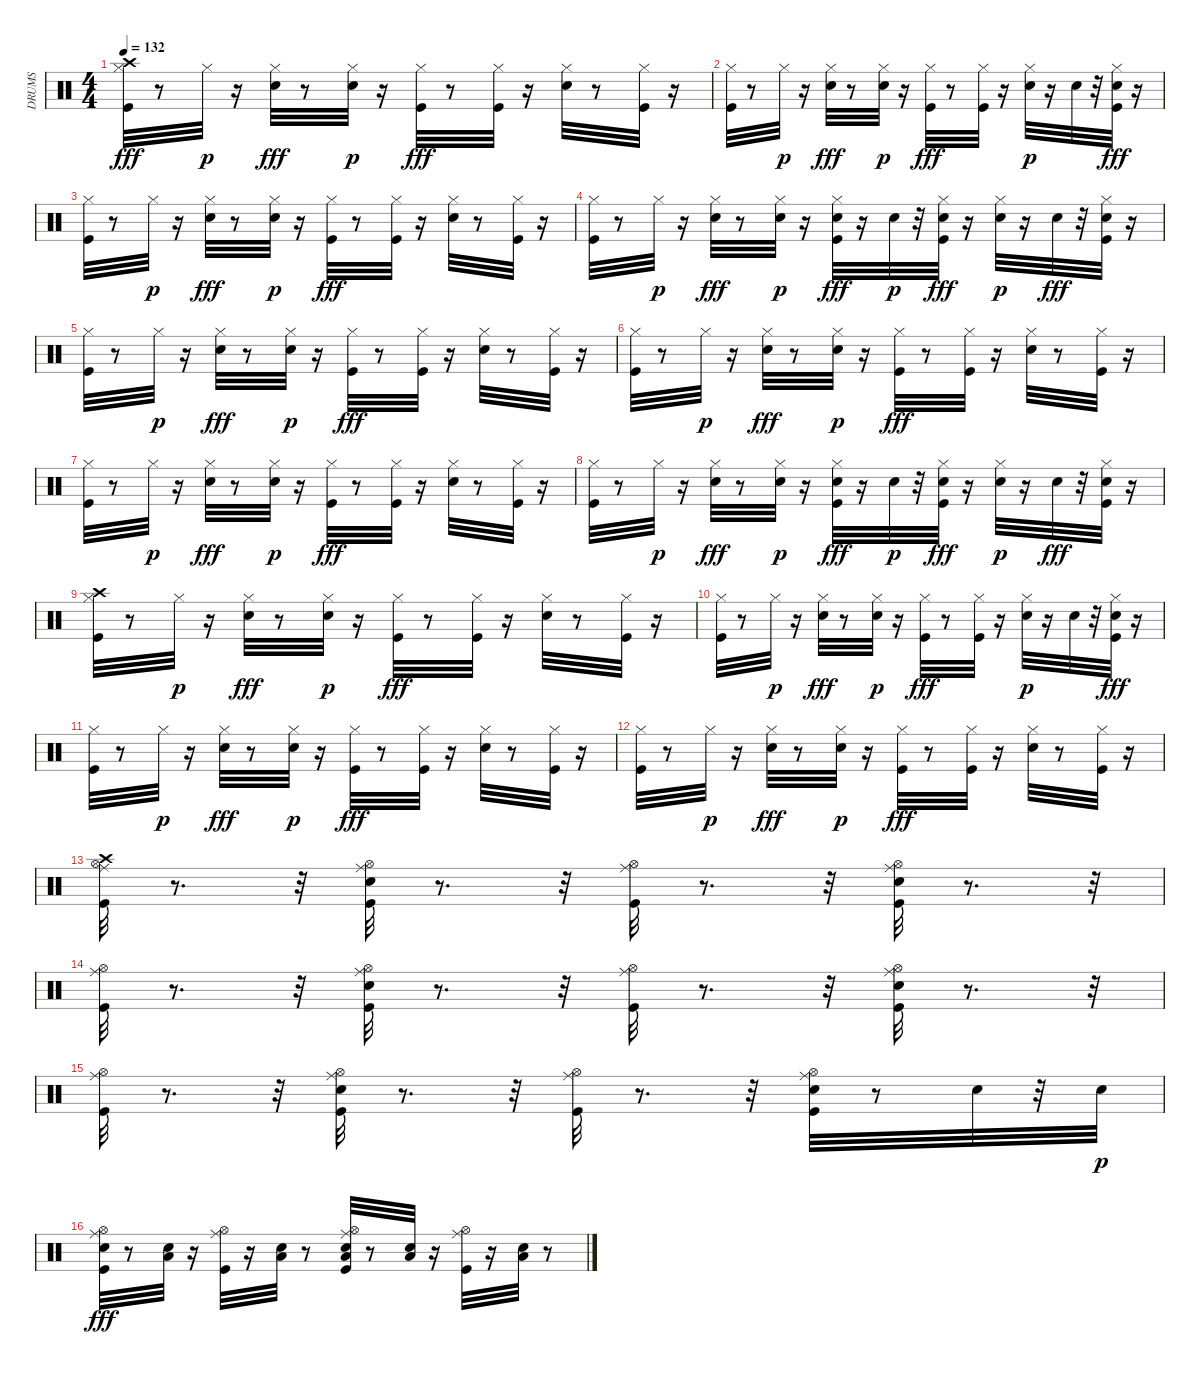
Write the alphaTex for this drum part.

\track ("DRUMS" "DRUMS") {instrument percussion}
\staff {score}
\articulation defaults
\ts (4 4)
\tempo 132
\clef neutral
\ks c
("Hi-Hat (closed)" "Kick (hit)" "Crash high (hit)").32{dy fff} r.8 "Hi-Hat (closed)".32{dy p} r.16 ("Hi-Hat (closed)" "Snare (hit) 2").32{dy fff} r.8 ("Hi-Hat (closed)" "Snare (hit) 2").32{dy p} r.16 ("Hi-Hat (closed)" "Kick (hit)").32{dy fff} r.8 ("Hi-Hat (closed)" "Kick (hit)").32 r.16 ("Hi-Hat (closed)" "Snare (hit) 2").32 r.8 ("Hi-Hat (closed)" "Kick (hit)").32 r.16 |
("Hi-Hat (closed)" "Kick (hit)").32 r.8 "Hi-Hat (closed)".32{dy p} r.16 ("Hi-Hat (closed)" "Snare (hit) 2").32{dy fff} r.8 ("Hi-Hat (closed)" "Snare (hit) 2").32{dy p} r.16 ("Hi-Hat (closed)" "Kick (hit)").32{dy fff} r.8 ("Hi-Hat (closed)" "Kick (hit)").32 r.16 ("Hi-Hat (closed)" "Snare (hit) 2").32{dy p} r.16 "Snare (hit) 2".32 r.32 ("Hi-Hat (closed)" "Snare (hit) 2" "Kick (hit)").32{dy fff} r.16 |
("Hi-Hat (closed)" "Kick (hit)").32 r.8 "Hi-Hat (closed)".32{dy p} r.16 ("Hi-Hat (closed)" "Snare (hit) 2").32{dy fff} r.8 ("Hi-Hat (closed)" "Snare (hit) 2").32{dy p} r.16 ("Hi-Hat (closed)" "Kick (hit)").32{dy fff} r.8 ("Hi-Hat (closed)" "Kick (hit)").32 r.16 ("Hi-Hat (closed)" "Snare (hit) 2").32 r.8 ("Hi-Hat (closed)" "Kick (hit)").32 r.16 |
("Hi-Hat (closed)" "Kick (hit)").32 r.8 "Hi-Hat (closed)".32{dy p} r.16 ("Hi-Hat (closed)" "Snare (hit) 2").32{dy fff} r.8 ("Hi-Hat (closed)" "Snare (hit) 2").32{dy p} r.16 ("Hi-Hat (closed)" "Snare (hit) 2" "Kick (hit)").32{dy fff} r.16 "Snare (hit) 2".32{dy p} r.32 ("Hi-Hat (closed)" "Snare (hit) 2" "Kick (hit)").32{dy fff} r.16 ("Hi-Hat (closed)" "Snare (hit) 2").32{dy p} r.16 "Snare (hit) 2".32{dy fff} r.32 ("Hi-Hat (closed)" "Snare (hit) 2" "Kick (hit)").32 r.16 |
("Hi-Hat (closed)" "Kick (hit)").32 r.8 "Hi-Hat (closed)".32{dy p} r.16 ("Hi-Hat (closed)" "Snare (hit) 2").32{dy fff} r.8 ("Hi-Hat (closed)" "Snare (hit) 2").32{dy p} r.16 ("Hi-Hat (closed)" "Kick (hit)").32{dy fff} r.8 ("Hi-Hat (closed)" "Kick (hit)").32 r.16 ("Hi-Hat (closed)" "Snare (hit) 2").32 r.8 ("Hi-Hat (closed)" "Kick (hit)").32 r.16 |
("Hi-Hat (closed)" "Kick (hit)").32 r.8 "Hi-Hat (closed)".32{dy p} r.16 ("Hi-Hat (closed)" "Snare (hit) 2").32{dy fff} r.8 ("Hi-Hat (closed)" "Snare (hit) 2").32{dy p} r.16 ("Hi-Hat (closed)" "Kick (hit)").32{dy fff} r.8 ("Hi-Hat (closed)" "Kick (hit)").32 r.16 ("Hi-Hat (closed)" "Snare (hit) 2").32 r.8 ("Hi-Hat (closed)" "Kick (hit)").32 r.16 |
("Hi-Hat (closed)" "Kick (hit)").32 r.8 "Hi-Hat (closed)".32{dy p} r.16 ("Hi-Hat (closed)" "Snare (hit) 2").32{dy fff} r.8 ("Hi-Hat (closed)" "Snare (hit) 2").32{dy p} r.16 ("Hi-Hat (closed)" "Kick (hit)").32{dy fff} r.8 ("Hi-Hat (closed)" "Kick (hit)").32 r.16 ("Hi-Hat (closed)" "Snare (hit) 2").32 r.8 ("Hi-Hat (closed)" "Kick (hit)").32 r.16 |
("Hi-Hat (closed)" "Kick (hit)").32 r.8 "Hi-Hat (closed)".32{dy p} r.16 ("Hi-Hat (closed)" "Snare (hit) 2").32{dy fff} r.8 ("Hi-Hat (closed)" "Snare (hit) 2").32{dy p} r.16 ("Hi-Hat (closed)" "Snare (hit) 2" "Kick (hit)").32{dy fff} r.16 "Snare (hit) 2".32{dy p} r.32 ("Hi-Hat (closed)" "Snare (hit) 2" "Kick (hit)").32{dy fff} r.16 ("Hi-Hat (closed)" "Snare (hit) 2").32{dy p} r.16 "Snare (hit) 2".32{dy fff} r.32 ("Hi-Hat (closed)" "Snare (hit) 2" "Kick (hit)").32 r.16 |
("Hi-Hat (closed)" "Kick (hit)" "Crash high (hit)").32 r.8 "Hi-Hat (closed)".32{dy p} r.16 ("Hi-Hat (closed)" "Snare (hit) 2").32{dy fff} r.8 ("Hi-Hat (closed)" "Snare (hit) 2").32{dy p} r.16 ("Hi-Hat (closed)" "Kick (hit)").32{dy fff} r.8 ("Hi-Hat (closed)" "Kick (hit)").32 r.16 ("Hi-Hat (closed)" "Snare (hit) 2").32 r.8 ("Hi-Hat (closed)" "Kick (hit)").32 r.16 |
("Hi-Hat (closed)" "Kick (hit)").32 r.8 "Hi-Hat (closed)".32{dy p} r.16 ("Hi-Hat (closed)" "Snare (hit) 2").32{dy fff} r.8 ("Hi-Hat (closed)" "Snare (hit) 2").32{dy p} r.16 ("Hi-Hat (closed)" "Kick (hit)").32{dy fff} r.8 ("Hi-Hat (closed)" "Kick (hit)").32 r.16 ("Hi-Hat (closed)" "Snare (hit) 2").32{dy p} r.16 "Snare (hit) 2".32 r.32 ("Hi-Hat (closed)" "Snare (hit) 2" "Kick (hit)").32{dy fff} r.16 |
("Hi-Hat (closed)" "Kick (hit)").32 r.8 "Hi-Hat (closed)".32{dy p} r.16 ("Hi-Hat (closed)" "Snare (hit) 2").32{dy fff} r.8 ("Hi-Hat (closed)" "Snare (hit) 2").32{dy p} r.16 ("Hi-Hat (closed)" "Kick (hit)").32{dy fff} r.8 ("Hi-Hat (closed)" "Kick (hit)").32 r.16 ("Hi-Hat (closed)" "Snare (hit) 2").32 r.8 ("Hi-Hat (closed)" "Kick (hit)").32 r.16 |
("Hi-Hat (closed)" "Kick (hit)").32 r.8 "Hi-Hat (closed)".32{dy p} r.16 ("Hi-Hat (closed)" "Snare (hit) 2").32{dy fff} r.8 ("Hi-Hat (closed)" "Snare (hit) 2").32{dy p} r.16 ("Hi-Hat (closed)" "Kick (hit)").32{dy fff} r.8 ("Hi-Hat (closed)" "Kick (hit)").32 r.16 ("Hi-Hat (closed)" "Snare (hit) 2").32 r.8 ("Hi-Hat (closed)" "Kick (hit)").32 r.16 |
("Kick (hit)" "Crash high (hit)" "Ride (middle)" "Hi-Hat (open)").32 r.8{d} r.32 ("Snare (hit) 2" "Kick (hit)" "Ride (middle)" "Hi-Hat (open)").32 r.8{d} r.32 ("Kick (hit)" "Ride (middle)" "Hi-Hat (open)").32 r.8{d} r.32 ("Snare (hit) 2" "Kick (hit)" "Ride (middle)" "Hi-Hat (open)").32 r.8{d} r.32 |
("Kick (hit)" "Ride (middle)" "Hi-Hat (open)").32 r.8{d} r.32 ("Snare (hit) 2" "Kick (hit)" "Ride (middle)" "Hi-Hat (open)").32 r.8{d} r.32 ("Kick (hit)" "Ride (middle)" "Hi-Hat (open)").32 r.8{d} r.32 ("Snare (hit) 2" "Kick (hit)" "Ride (middle)" "Hi-Hat (open)").32 r.8{d} r.32 |
("Kick (hit)" "Ride (middle)" "Hi-Hat (open)").32 r.8{d} r.32 ("Snare (hit) 2" "Kick (hit)" "Ride (middle)" "Hi-Hat (open)").32 r.8{d} r.32 ("Kick (hit)" "Ride (middle)" "Hi-Hat (open)").32 r.8{d} r.32 ("Snare (hit) 2" "Kick (hit)" "Ride (middle)" "Hi-Hat (open)").32 r.8 "Snare (hit) 2".32 r.32 "Snare (hit) 2".32{dy p} |
("Snare (hit) 2" "Kick (hit)" "Ride (middle)" "Hi-Hat (open)").32{dy fff} r.8 ("Snare (hit) 2" "Low Tom (hit)").32 r.16 ("Kick (hit)" "Ride (middle)" "Hi-Hat (open)").32 r.16 ("Snare (hit) 2" "Low Tom (hit)").32 r.8 ("Snare (hit) 2" "Low Tom (hit)" "Kick (hit)" "Ride (middle)" "Hi-Hat (open)").32 r.8 ("Snare (hit) 2" "Low Tom (hit)").32 r.16 ("Kick (hit)" "Ride (middle)" "Hi-Hat (open)").32 r.16 ("Snare (hit) 2" "Low Tom (hit)").32 r.8
